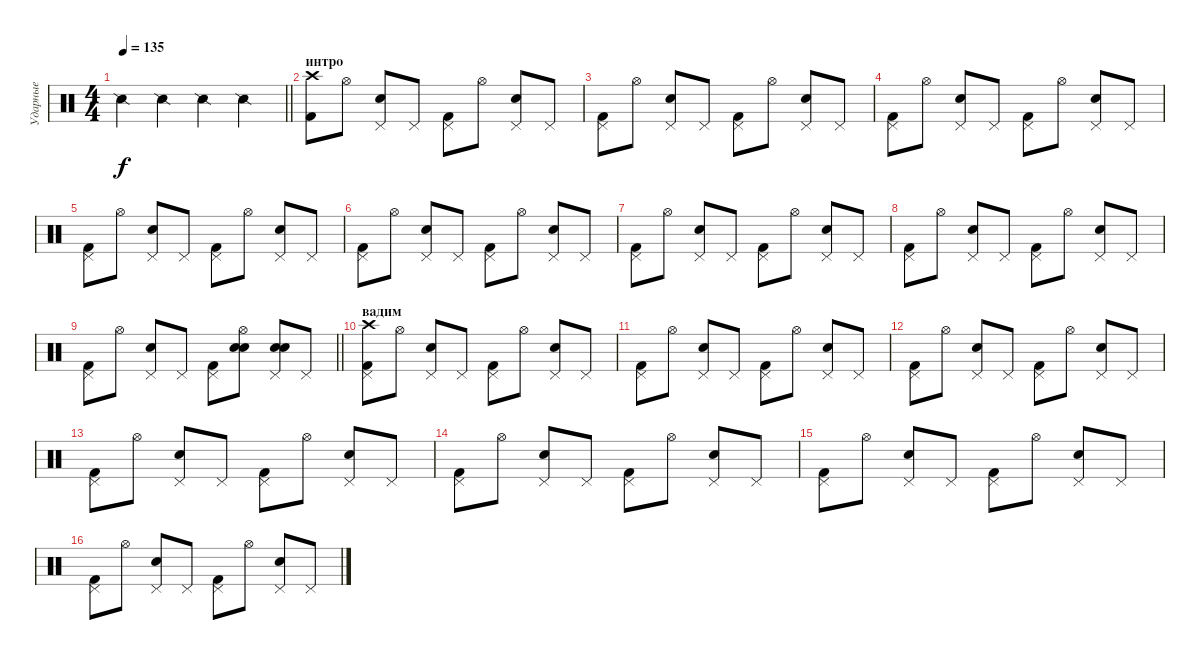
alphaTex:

\track ("Ударные" "Ударные") {instrument percussion}
\staff {score}
\articulation defaults
\ts (4 4)
\tempo 135
\clef neutral
\barLineRight lightlight
\ks c "Snare (side stick) 2".4{dy f} "Snare (side stick) 2".4 "Snare (side stick) 2".4 "Snare (side stick) 2".4
|
\section ("" "интро")
("Crash high (hit)" "Kick (hit) 2").8 "Hi-Hat (open)".8 ("Pedal Hi-Hat (hit)" "Snare (hit) 2").8 "Pedal Hi-Hat (hit)".8 ("Pedal Hi-Hat (hit)" "Kick (hit) 2").8 "Hi-Hat (open)".8 ("Pedal Hi-Hat (hit)" "Snare (hit) 2").8 "Pedal Hi-Hat (hit)".8 |
("Pedal Hi-Hat (hit)" "Kick (hit) 2").8 "Hi-Hat (open)".8 ("Pedal Hi-Hat (hit)" "Snare (hit) 2").8 "Pedal Hi-Hat (hit)".8 ("Pedal Hi-Hat (hit)" "Kick (hit) 2").8 "Hi-Hat (open)".8 ("Pedal Hi-Hat (hit)" "Snare (hit) 2").8 "Pedal Hi-Hat (hit)".8 |
("Pedal Hi-Hat (hit)" "Kick (hit) 2").8 "Hi-Hat (open)".8 ("Pedal Hi-Hat (hit)" "Snare (hit) 2").8 "Pedal Hi-Hat (hit)".8 ("Pedal Hi-Hat (hit)" "Kick (hit) 2").8 "Hi-Hat (open)".8 ("Pedal Hi-Hat (hit)" "Snare (hit) 2").8 "Pedal Hi-Hat (hit)".8 |
("Pedal Hi-Hat (hit)" "Kick (hit) 2").8 "Hi-Hat (open)".8 ("Pedal Hi-Hat (hit)" "Snare (hit) 2").8 "Pedal Hi-Hat (hit)".8 ("Pedal Hi-Hat (hit)" "Kick (hit) 2").8 "Hi-Hat (open)".8 ("Pedal Hi-Hat (hit)" "Snare (hit) 2").8 "Pedal Hi-Hat (hit)".8 |
("Pedal Hi-Hat (hit)" "Kick (hit) 2").8 "Hi-Hat (open)".8 ("Pedal Hi-Hat (hit)" "Snare (hit) 2").8 "Pedal Hi-Hat (hit)".8 ("Pedal Hi-Hat (hit)" "Kick (hit) 2").8 "Hi-Hat (open)".8 ("Pedal Hi-Hat (hit)" "Snare (hit) 2").8 "Pedal Hi-Hat (hit)".8 |
("Pedal Hi-Hat (hit)" "Kick (hit) 2").8 "Hi-Hat (open)".8 ("Pedal Hi-Hat (hit)" "Snare (hit) 2").8 "Pedal Hi-Hat (hit)".8 ("Pedal Hi-Hat (hit)" "Kick (hit) 2").8 "Hi-Hat (open)".8 ("Pedal Hi-Hat (hit)" "Snare (hit) 2").8 "Pedal Hi-Hat (hit)".8 |
("Pedal Hi-Hat (hit)" "Kick (hit) 2").8 "Hi-Hat (open)".8 ("Pedal Hi-Hat (hit)" "Snare (hit) 2").8 "Pedal Hi-Hat (hit)".8 ("Pedal Hi-Hat (hit)" "Kick (hit) 2").8 "Hi-Hat (open)".8 ("Pedal Hi-Hat (hit)" "Snare (hit) 2").8 "Pedal Hi-Hat (hit)".8 |
\barLineRight lightlight
("Pedal Hi-Hat (hit)" "Kick (hit) 2").8 "Hi-Hat (open)".8 ("Pedal Hi-Hat (hit)" "Snare (hit) 2").8 "Pedal Hi-Hat (hit)".8 ("Pedal Hi-Hat (hit)" "Kick (hit) 2").8 ("Hi-Hat (open)" "Electric Snare (hit)" "Snare (hit) 2").8 ("Pedal Hi-Hat (hit)" "Electric Snare (hit)" "Snare (hit) 2").8 "Pedal Hi-Hat (hit)".8 |
\section ("" "вадим")
("Pedal Hi-Hat (hit)" "Kick (hit) 2" "Crash high (hit)").8 "Hi-Hat (open)".8 ("Pedal Hi-Hat (hit)" "Snare (hit) 2").8 "Pedal Hi-Hat (hit)".8 ("Pedal Hi-Hat (hit)" "Kick (hit) 2").8 "Hi-Hat (open)".8 ("Pedal Hi-Hat (hit)" "Snare (hit) 2").8 "Pedal Hi-Hat (hit)".8 |
("Pedal Hi-Hat (hit)" "Kick (hit) 2").8 "Hi-Hat (open)".8 ("Pedal Hi-Hat (hit)" "Snare (hit) 2").8 "Pedal Hi-Hat (hit)".8 ("Pedal Hi-Hat (hit)" "Kick (hit) 2").8 "Hi-Hat (open)".8 ("Pedal Hi-Hat (hit)" "Snare (hit) 2").8 "Pedal Hi-Hat (hit)".8 |
("Pedal Hi-Hat (hit)" "Kick (hit) 2").8 "Hi-Hat (open)".8 ("Pedal Hi-Hat (hit)" "Snare (hit) 2").8 "Pedal Hi-Hat (hit)".8 ("Pedal Hi-Hat (hit)" "Kick (hit) 2").8 "Hi-Hat (open)".8 ("Pedal Hi-Hat (hit)" "Snare (hit) 2").8 "Pedal Hi-Hat (hit)".8 |
("Pedal Hi-Hat (hit)" "Kick (hit) 2").8 "Hi-Hat (open)".8 ("Pedal Hi-Hat (hit)" "Snare (hit) 2").8 "Pedal Hi-Hat (hit)".8 ("Pedal Hi-Hat (hit)" "Kick (hit) 2").8 "Hi-Hat (open)".8 ("Pedal Hi-Hat (hit)" "Snare (hit) 2").8 "Pedal Hi-Hat (hit)".8 |
("Pedal Hi-Hat (hit)" "Kick (hit) 2").8 "Hi-Hat (open)".8 ("Pedal Hi-Hat (hit)" "Snare (hit) 2").8 "Pedal Hi-Hat (hit)".8 ("Pedal Hi-Hat (hit)" "Kick (hit) 2").8 "Hi-Hat (open)".8 ("Pedal Hi-Hat (hit)" "Snare (hit) 2").8 "Pedal Hi-Hat (hit)".8 |
("Pedal Hi-Hat (hit)" "Kick (hit) 2").8 "Hi-Hat (open)".8 ("Pedal Hi-Hat (hit)" "Snare (hit) 2").8 "Pedal Hi-Hat (hit)".8 ("Pedal Hi-Hat (hit)" "Kick (hit) 2").8 "Hi-Hat (open)".8 ("Pedal Hi-Hat (hit)" "Snare (hit) 2").8 "Pedal Hi-Hat (hit)".8 |
("Pedal Hi-Hat (hit)" "Kick (hit) 2").8 "Hi-Hat (open)".8 ("Pedal Hi-Hat (hit)" "Snare (hit) 2").8 "Pedal Hi-Hat (hit)".8 ("Pedal Hi-Hat (hit)" "Kick (hit) 2").8 "Hi-Hat (open)".8 ("Pedal Hi-Hat (hit)" "Snare (hit) 2").8 "Pedal Hi-Hat (hit)".8
